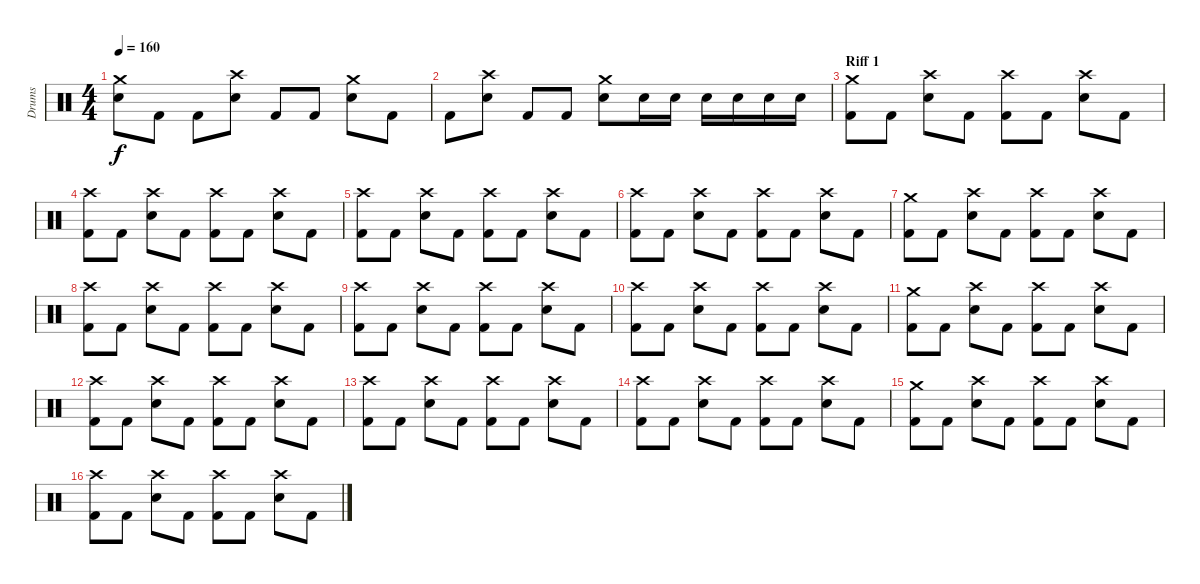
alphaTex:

\track ("Drums" "Drums") {instrument percussion}
\staff {score}
\articulation defaults
\ts (4 4)
\tempo 160
\clef neutral
\ks c
("Crash medium (hit)" "Electric Snare (hit)").8{dy f} "Kick (hit) 2".8 "Kick (hit) 2".8 ("Crash high (hit)" "Electric Snare (hit)").8 "Kick (hit) 2".8 "Kick (hit) 2".8 ("Crash medium (hit)" "Electric Snare (hit)").8 "Kick (hit) 2".8 |
"Kick (hit) 2".8 ("Crash high (hit)" "Electric Snare (hit)").8 "Kick (hit) 2".8 "Kick (hit) 2".8 ("Crash medium (hit)" "Electric Snare (hit)").8 "Electric Snare (hit)".16 "Electric Snare (hit)".16 "Electric Snare (hit)".16 "Electric Snare (hit)".16 "Electric Snare (hit)".16 "Electric Snare (hit)".16 |
\section ("" "Riff 1")
("Crash medium (hit)" "Kick (hit) 2").8 "Kick (hit) 2".8 ("Crash high (hit)" "Electric Snare (hit)").8 "Kick (hit) 2".8 ("Crash high (hit)" "Kick (hit) 2").8 "Kick (hit) 2".8 ("Crash high (hit)" "Electric Snare (hit)").8 "Kick (hit) 2".8 |
("Crash high (hit)" "Kick (hit) 2").8 "Kick (hit) 2".8 ("Crash high (hit)" "Electric Snare (hit)").8 "Kick (hit) 2".8 ("Crash high (hit)" "Kick (hit) 2").8 "Kick (hit) 2".8 ("Crash high (hit)" "Electric Snare (hit)").8 "Kick (hit) 2".8 |
("Crash high (hit)" "Kick (hit) 2").8 "Kick (hit) 2".8 ("Crash high (hit)" "Electric Snare (hit)").8 "Kick (hit) 2".8 ("Crash high (hit)" "Kick (hit) 2").8 "Kick (hit) 2".8 ("Crash high (hit)" "Electric Snare (hit)").8 "Kick (hit) 2".8 |
("Crash high (hit)" "Kick (hit) 2").8 "Kick (hit) 2".8 ("Crash high (hit)" "Electric Snare (hit)").8 "Kick (hit) 2".8 ("Crash high (hit)" "Kick (hit) 2").8 "Kick (hit) 2".8 ("Crash high (hit)" "Electric Snare (hit)").8 "Kick (hit) 2".8 |
("Crash medium (hit)" "Kick (hit) 2").8 "Kick (hit) 2".8 ("Crash high (hit)" "Electric Snare (hit)").8 "Kick (hit) 2".8 ("Crash high (hit)" "Kick (hit) 2").8 "Kick (hit) 2".8 ("Crash high (hit)" "Electric Snare (hit)").8 "Kick (hit) 2".8 |
("Crash high (hit)" "Kick (hit) 2").8 "Kick (hit) 2".8 ("Crash high (hit)" "Electric Snare (hit)").8 "Kick (hit) 2".8 ("Crash high (hit)" "Kick (hit) 2").8 "Kick (hit) 2".8 ("Crash high (hit)" "Electric Snare (hit)").8 "Kick (hit) 2".8 |
("Crash high (hit)" "Kick (hit) 2").8 "Kick (hit) 2".8 ("Crash high (hit)" "Electric Snare (hit)").8 "Kick (hit) 2".8 ("Crash high (hit)" "Kick (hit) 2").8 "Kick (hit) 2".8 ("Crash high (hit)" "Electric Snare (hit)").8 "Kick (hit) 2".8 |
("Crash high (hit)" "Kick (hit) 2").8 "Kick (hit) 2".8 ("Crash high (hit)" "Electric Snare (hit)").8 "Kick (hit) 2".8 ("Crash high (hit)" "Kick (hit) 2").8 "Kick (hit) 2".8 ("Crash high (hit)" "Electric Snare (hit)").8 "Kick (hit) 2".8 |
("Crash medium (hit)" "Kick (hit) 2").8 "Kick (hit) 2".8 ("Crash high (hit)" "Electric Snare (hit)").8 "Kick (hit) 2".8 ("Crash high (hit)" "Kick (hit) 2").8 "Kick (hit) 2".8 ("Crash high (hit)" "Electric Snare (hit)").8 "Kick (hit) 2".8 |
("Crash high (hit)" "Kick (hit) 2").8 "Kick (hit) 2".8 ("Crash high (hit)" "Electric Snare (hit)").8 "Kick (hit) 2".8 ("Crash high (hit)" "Kick (hit) 2").8 "Kick (hit) 2".8 ("Crash high (hit)" "Electric Snare (hit)").8 "Kick (hit) 2".8 |
("Crash high (hit)" "Kick (hit) 2").8 "Kick (hit) 2".8 ("Crash high (hit)" "Electric Snare (hit)").8 "Kick (hit) 2".8 ("Crash high (hit)" "Kick (hit) 2").8 "Kick (hit) 2".8 ("Crash high (hit)" "Electric Snare (hit)").8 "Kick (hit) 2".8 |
("Crash high (hit)" "Kick (hit) 2").8 "Kick (hit) 2".8 ("Crash high (hit)" "Electric Snare (hit)").8 "Kick (hit) 2".8 ("Crash high (hit)" "Kick (hit) 2").8 "Kick (hit) 2".8 ("Crash high (hit)" "Electric Snare (hit)").8 "Kick (hit) 2".8 |
("Crash medium (hit)" "Kick (hit) 2").8 "Kick (hit) 2".8 ("Crash high (hit)" "Electric Snare (hit)").8 "Kick (hit) 2".8 ("Crash high (hit)" "Kick (hit) 2").8 "Kick (hit) 2".8 ("Crash high (hit)" "Electric Snare (hit)").8 "Kick (hit) 2".8 |
("Crash high (hit)" "Kick (hit) 2").8 "Kick (hit) 2".8 ("Crash high (hit)" "Electric Snare (hit)").8 "Kick (hit) 2".8 ("Crash high (hit)" "Kick (hit) 2").8 "Kick (hit) 2".8 ("Crash high (hit)" "Electric Snare (hit)").8 "Kick (hit) 2".8
